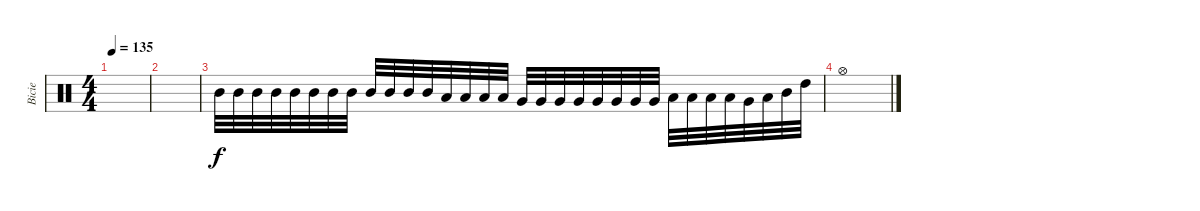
\track ("Bicie" "Bicie") {instrument percussion}
\staff {score}
\articulation defaults
\ts (4 4)
\tempo 135
\clef neutral
\ks c
|
|
"Mid Tom (hit)".32 "Mid Tom (hit)".32 "Mid Tom (hit)".32 "Mid Tom (hit)".32 "Mid Tom (hit)".32 "Mid Tom (hit)".32 "Mid Tom (hit)".32 "Mid Tom (hit)".32 "Mid Tom (hit)".32 "Mid Tom (hit)".32 "Mid Tom (hit)".32 "Mid Tom (hit)".32 "Low Tom (hit)".32 "Low Tom (hit)".32 "Low Tom (hit)".32 "Low Tom (hit)".32 "Very Low Tom (hit)".32 "Very Low Tom (hit)".32 "Very Low Tom (hit)".32 "Very Low Tom (hit)".32 "Very Low Tom (hit)".32 "Very Low Tom (hit)".32 "Very Low Tom (hit)".32 "Very Low Tom (hit)".32 "Low Floor Tom (hit)".32 "Low Floor Tom (hit)".32 "Low Floor Tom (hit)".32 "Low Floor Tom (hit)".32 "Very Low Tom (hit)".32 "Low Tom (hit)".32 "Mid Tom (hit)".32 "High Tom (hit)".32 |
"Hi-Hat (open)".1
